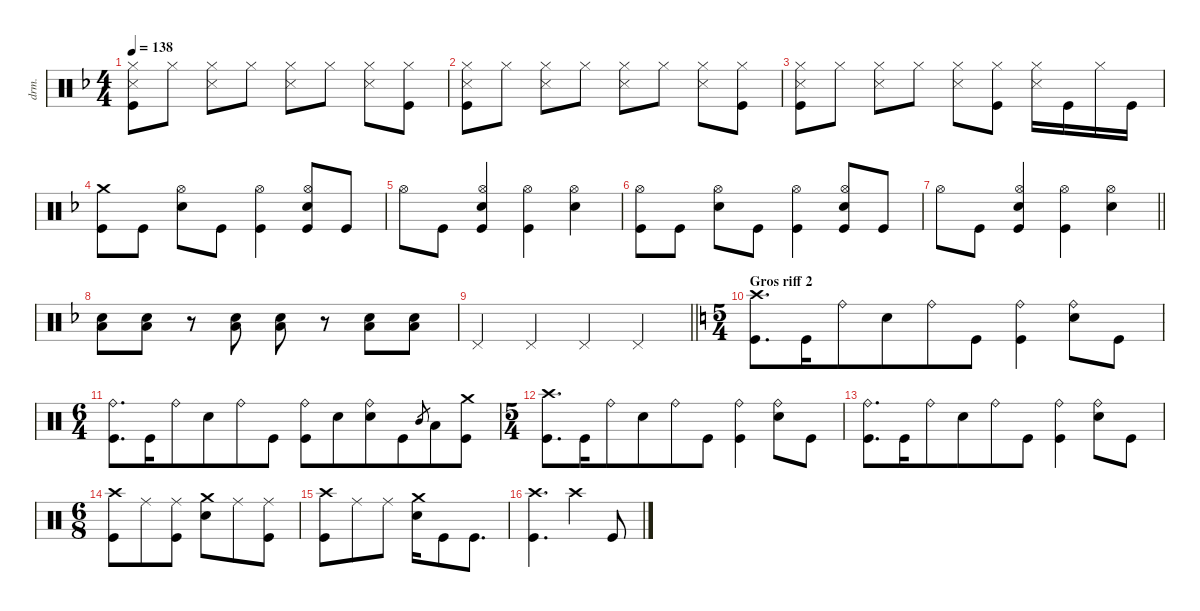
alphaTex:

\defaultSystemsLayout 4
\hideDynamics
\bracketExtendMode nobrackets
\track ("Percussions" "drm.") {instrument percussion}
\staff {score}
\articulation defaults
\ts (4 4)
\tempo 138
\clef neutral
\ks dminor
("Snare (side stick) 3"{acc forcenatural} "Kick (hit)"{acc forcenatural} "Hi-Hat (closed)"{acc forcenatural}).8{dy f} "Hi-Hat (closed)"{acc forcenatural}.8 ("Snare (side stick) 3"{acc forcenatural} "Hi-Hat (closed)"{acc forcenatural}).8 "Hi-Hat (closed)"{acc forcenatural}.8 ("Snare (side stick) 3"{acc forcenatural} "Hi-Hat (closed)"{acc forcenatural}).8 "Hi-Hat (closed)"{acc forcenatural}.8 ("Snare (side stick) 3"{acc forcenatural} "Hi-Hat (closed)"{acc forcenatural}).8 ("Hi-Hat (closed)"{acc forcenatural} "Kick (hit)"{acc forcenatural}).8 |
("Snare (side stick) 3"{acc forcenatural} "Kick (hit)"{acc forcenatural} "Hi-Hat (closed)"{acc forcenatural}).8 "Hi-Hat (closed)"{acc forcenatural}.8 ("Snare (side stick) 3"{acc forcenatural} "Hi-Hat (closed)"{acc forcenatural}).8 "Hi-Hat (closed)"{acc forcenatural}.8 ("Snare (side stick) 3"{acc forcenatural} "Hi-Hat (closed)"{acc forcenatural}).8 "Hi-Hat (closed)"{acc forcenatural}.8 ("Snare (side stick) 3"{acc forcenatural} "Hi-Hat (closed)"{acc forcenatural}).8 ("Hi-Hat (closed)"{acc forcenatural} "Kick (hit)"{acc forcenatural}).8 |
("Snare (side stick) 3"{acc forcenatural} "Kick (hit)"{acc forcenatural} "Hi-Hat (closed)"{acc forcenatural}).8 "Hi-Hat (closed)"{acc forcenatural}.8 ("Snare (side stick) 3"{acc forcenatural} "Hi-Hat (closed)"{acc forcenatural}).8 "Hi-Hat (closed)"{acc forcenatural}.8 ("Snare (side stick) 3"{acc forcenatural} "Hi-Hat (closed)"{acc forcenatural}).8 ("Hi-Hat (closed)"{acc forcenatural} "Kick (hit)"{acc forcenatural}).8 ("Snare (side stick) 3"{acc forcenatural} "Hi-Hat (closed)"{acc forcenatural}).16 "Kick (hit)"{acc forcenatural}.16 "Hi-Hat (closed)"{acc forcenatural}.16 "Kick (hit)"{acc forcenatural}.16 |
("Crash medium (hit)"{acc forcenatural} "Kick (hit)"{acc forcenatural}).8 "Kick (hit)"{acc forcenatural}.8 ("Hi-Hat (open)"{acc forcenatural} "Snare (hit) 2"{acc forcenatural}).8 "Kick (hit)"{acc forcenatural}.8 ("Hi-Hat (open)"{acc forcenatural} "Kick (hit)"{acc forcenatural}).4 ("Hi-Hat (open)"{acc forcenatural} "Snare (hit) 2"{acc forcenatural} "Kick (hit)"{acc forcenatural}).8 "Kick (hit)"{acc forcenatural}.8 |
"Hi-Hat (open)"{acc forcenatural}.8 "Kick (hit)"{acc forcenatural}.8 ("Hi-Hat (open)"{acc forcenatural} "Snare (hit) 2"{acc forcenatural} "Kick (hit)"{acc forcenatural}).4 ("Hi-Hat (open)"{acc forcenatural} "Kick (hit)"{acc forcenatural}).4 ("Hi-Hat (open)"{acc forcenatural} "Snare (hit) 2"{acc forcenatural}).4 |
("Hi-Hat (open)"{acc forcenatural} "Kick (hit)"{acc forcenatural}).8 "Kick (hit)"{acc forcenatural}.8 ("Hi-Hat (open)"{acc forcenatural} "Snare (hit) 2"{acc forcenatural}).8 "Kick (hit)"{acc forcenatural}.8 ("Hi-Hat (open)"{acc forcenatural} "Kick (hit)"{acc forcenatural}).4 ("Hi-Hat (open)"{acc forcenatural} "Snare (hit) 2"{acc forcenatural} "Kick (hit)"{acc forcenatural}).8 "Kick (hit)"{acc forcenatural}.8 |
\barLineRight lightlight "Hi-Hat (open)"{acc forcenatural}.8 "Kick (hit)"{acc forcenatural}.8
("Hi-Hat (open)"{acc forcenatural} "Snare (hit) 2"{acc forcenatural} "Kick (hit)"{acc forcenatural}).4 ("Hi-Hat (open)"{acc forcenatural} "Kick (hit)"{acc forcenatural}).4 ("Hi-Hat (open)"{acc forcenatural} "Snare (hit) 2"{acc forcenatural}).4 |
("Snare (hit) 2"{acc forcenatural} "Low Tom (hit)"{acc forcenatural}).8 ("Snare (hit) 2"{acc forcenatural} "Low Tom (hit)"{acc forcenatural}).8 r.8 ("Snare (hit) 2"{acc forcenatural} "Low Tom (hit)"{acc forcenatural}).8 ("Snare (hit) 2"{acc forcenatural} "Low Tom (hit)"{acc forcenatural}).8 r.8 ("Snare (hit) 2"{acc forcenatural} "Low Tom (hit)"{acc forcenatural}).8 ("Snare (hit) 2"{acc forcenatural} "Low Tom (hit)"{acc forcenatural}).8 |
\barLineRight lightlight "Pedal Hi-Hat (hit)"{acc forcenatural}.4 "Pedal Hi-Hat (hit)"{acc forcenatural}.4 "Pedal Hi-Hat (hit)"{acc forcenatural}.4 "Pedal Hi-Hat (hit)"{acc forcenatural}.4
|
\ts (5 4)
\beaming (8 6 4)
\section ("" "Gros riff 2")
\ks aminor
("Crash high (hit)" "Kick (hit)").8{d} "Kick (hit)".16 "Ride (bell)".8 "Snare (hit) 2".8 "Ride (bell)".8 "Kick (hit)".8 ("Kick (hit)" "Ride (bell)").4 ("Ride (bell)" "Snare (hit) 2").8 "Kick (hit)".8 |
\ts (6 4)
\beaming (8 6 6)
("Ride (bell)" "Kick (hit)").8{d} "Kick (hit)".16 "Ride (bell)".8 "Snare (hit) 2".8 "Ride (bell)".8 "Kick (hit)".8 ("Kick (hit)" "Ride (bell)").8 "Snare (hit) 2".8 ("Ride (bell)" "Snare (hit) 2").8 "Kick (hit)".8 "Mid Tom (hit)".8{gr} "Low Tom (hit)".8 ("Crash medium (hit)" "Kick (hit)").8 |
\ts (5 4)
\beaming (8 6 4)
("Crash high (hit)" "Kick (hit)").8{d} "Kick (hit)".16 "Ride (bell)".8 "Snare (hit) 2".8 "Ride (bell)".8 "Kick (hit)".8 ("Kick (hit)" "Ride (bell)").4 ("Ride (bell)" "Snare (hit) 2").8 "Kick (hit)".8 |
("Ride (bell)" "Kick (hit)").8{d} "Kick (hit)".16 "Ride (bell)".8 "Snare (hit) 2".8 "Ride (bell)".8 "Kick (hit)".8 ("Kick (hit)" "Ride (bell)").4 ("Ride (bell)" "Snare (hit) 2").8 "Kick (hit)".8 |
\ts (6 8)
\beaming (8 3 3)
("Crash high (hit)" "Kick (hit)").8 "Ride (middle)".8 ("Ride (middle)" "Kick (hit)").8 ("Crash medium (hit)" "Snare (hit) 2").8 "Ride (middle)".8 ("Ride (middle)" "Kick (hit)").8 |
("Crash high (hit)" "Kick (hit)").8 "Ride (middle)".8 "Ride (middle)".8 ("Crash medium (hit)" "Snare (hit) 2").16 "Kick (hit)".8 "Kick (hit)".8{d} |
("Crash high (hit)" "Kick (hit)").4{d} "Crash high (hit)".4 "Kick (hit)".8
